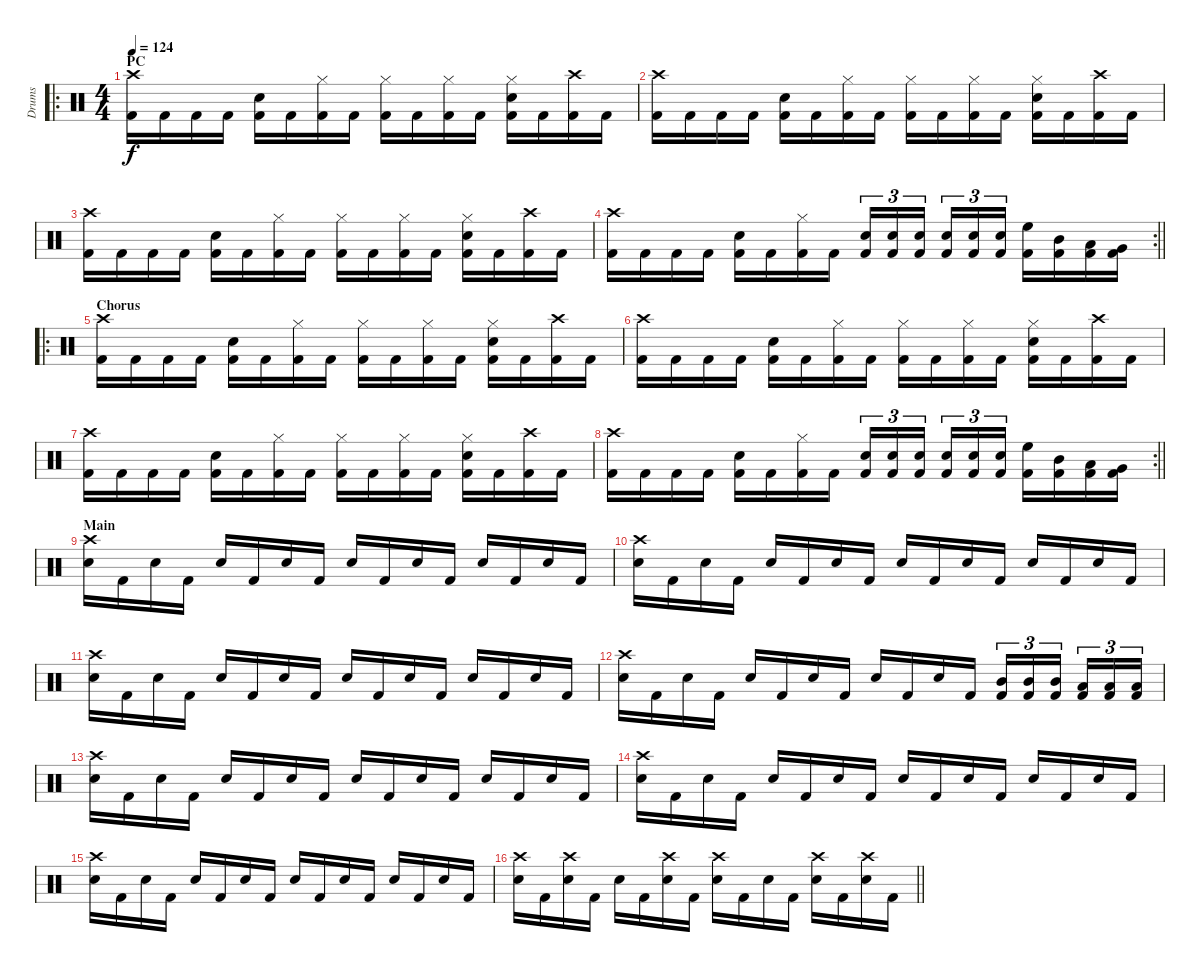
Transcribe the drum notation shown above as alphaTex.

\track ("Drums" "Drums") {instrument percussion}
\staff {score}
\articulation defaults
\ro
\ts (4 4)
\section ("" "PC")
\tempo 124
\clef neutral
\ks c
("Crash high (hit)" "Kick (hit) 2").16{dy f} "Kick (hit) 2".16 "Kick (hit) 2".16 "Kick (hit) 2".16 ("Electric Snare (hit)" "Kick (hit) 2").16 "Kick (hit) 2".16 ("Hi-Hat (closed)" "Kick (hit) 2").16 "Kick (hit) 2".16 ("Hi-Hat (closed)" "Kick (hit) 2").16 "Kick (hit) 2".16 ("Hi-Hat (closed)" "Kick (hit) 2").16 "Kick (hit) 2".16 ("Hi-Hat (closed)" "Electric Snare (hit)" "Kick (hit) 2").16 "Kick (hit) 2".16 ("Crash high (hit)" "Kick (hit) 2").16 "Kick (hit) 2".16 |
("Crash high (hit)" "Kick (hit) 2").16 "Kick (hit) 2".16 "Kick (hit) 2".16 "Kick (hit) 2".16 ("Electric Snare (hit)" "Kick (hit) 2").16 "Kick (hit) 2".16 ("Hi-Hat (closed)" "Kick (hit) 2").16 "Kick (hit) 2".16 ("Hi-Hat (closed)" "Kick (hit) 2").16 "Kick (hit) 2".16 ("Hi-Hat (closed)" "Kick (hit) 2").16 "Kick (hit) 2".16 ("Hi-Hat (closed)" "Electric Snare (hit)" "Kick (hit) 2").16 "Kick (hit) 2".16 ("Crash high (hit)" "Kick (hit) 2").16 "Kick (hit) 2".16 |
("Crash high (hit)" "Kick (hit) 2").16 "Kick (hit) 2".16 "Kick (hit) 2".16 "Kick (hit) 2".16 ("Electric Snare (hit)" "Kick (hit) 2").16 "Kick (hit) 2".16 ("Hi-Hat (closed)" "Kick (hit) 2").16 "Kick (hit) 2".16 ("Hi-Hat (closed)" "Kick (hit) 2").16 "Kick (hit) 2".16 ("Hi-Hat (closed)" "Kick (hit) 2").16 "Kick (hit) 2".16 ("Hi-Hat (closed)" "Electric Snare (hit)" "Kick (hit) 2").16 "Kick (hit) 2".16 ("Crash high (hit)" "Kick (hit) 2").16 "Kick (hit) 2".16 |
\rc 2
\barLineRight lightlight
("Crash high (hit)" "Kick (hit) 2").16 "Kick (hit) 2".16 "Kick (hit) 2".16 "Kick (hit) 2".16 ("Electric Snare (hit)" "Kick (hit) 2").16 "Kick (hit) 2".16 ("Hi-Hat (closed)" "Kick (hit) 2").16 "Kick (hit) 2".16 ("Electric Snare (hit)" "Kick (hit) 2").16{tu (3 2)} ("Electric Snare (hit)" "Kick (hit) 2").16{tu (3 2)} ("Electric Snare (hit)" "Kick (hit) 2").16{tu (3 2) beam splitsecondary} ("Electric Snare (hit)" "Kick (hit) 2").16{tu (3 2)} ("Electric Snare (hit)" "Kick (hit) 2").16{tu (3 2)} ("Electric Snare (hit)" "Kick (hit) 2").16{tu (3 2)} ("High Floor Tom (hit)" "Kick (hit) 2").16 ("Mid Tom (hit)" "Kick (hit) 2").16 ("Low Tom (hit)" "Kick (hit) 2").16 ("Very Low Tom (hit)" "Kick (hit) 2").16 |
\ro
\section ("" "Chorus")
("Crash high (hit)" "Kick (hit) 2").16 "Kick (hit) 2".16 "Kick (hit) 2".16 "Kick (hit) 2".16 ("Electric Snare (hit)" "Kick (hit) 2").16 "Kick (hit) 2".16 ("Hi-Hat (closed)" "Kick (hit) 2").16 "Kick (hit) 2".16 ("Hi-Hat (closed)" "Kick (hit) 2").16 "Kick (hit) 2".16 ("Hi-Hat (closed)" "Kick (hit) 2").16 "Kick (hit) 2".16 ("Hi-Hat (closed)" "Electric Snare (hit)" "Kick (hit) 2").16 "Kick (hit) 2".16 ("Crash high (hit)" "Kick (hit) 2").16 "Kick (hit) 2".16 |
("Crash high (hit)" "Kick (hit) 2").16 "Kick (hit) 2".16 "Kick (hit) 2".16 "Kick (hit) 2".16 ("Electric Snare (hit)" "Kick (hit) 2").16 "Kick (hit) 2".16 ("Hi-Hat (closed)" "Kick (hit) 2").16 "Kick (hit) 2".16 ("Hi-Hat (closed)" "Kick (hit) 2").16 "Kick (hit) 2".16 ("Hi-Hat (closed)" "Kick (hit) 2").16 "Kick (hit) 2".16 ("Hi-Hat (closed)" "Electric Snare (hit)" "Kick (hit) 2").16 "Kick (hit) 2".16 ("Crash high (hit)" "Kick (hit) 2").16 "Kick (hit) 2".16 |
("Crash high (hit)" "Kick (hit) 2").16 "Kick (hit) 2".16 "Kick (hit) 2".16 "Kick (hit) 2".16 ("Electric Snare (hit)" "Kick (hit) 2").16 "Kick (hit) 2".16 ("Hi-Hat (closed)" "Kick (hit) 2").16 "Kick (hit) 2".16 ("Hi-Hat (closed)" "Kick (hit) 2").16 "Kick (hit) 2".16 ("Hi-Hat (closed)" "Kick (hit) 2").16 "Kick (hit) 2".16 ("Hi-Hat (closed)" "Electric Snare (hit)" "Kick (hit) 2").16 "Kick (hit) 2".16 ("Crash high (hit)" "Kick (hit) 2").16 "Kick (hit) 2".16 |
\rc 2
\barLineRight lightlight
("Crash high (hit)" "Kick (hit) 2").16 "Kick (hit) 2".16 "Kick (hit) 2".16 "Kick (hit) 2".16 ("Electric Snare (hit)" "Kick (hit) 2").16 "Kick (hit) 2".16 ("Hi-Hat (closed)" "Kick (hit) 2").16 "Kick (hit) 2".16 ("Electric Snare (hit)" "Kick (hit) 2").16{tu (3 2)} ("Electric Snare (hit)" "Kick (hit) 2").16{tu (3 2)} ("Electric Snare (hit)" "Kick (hit) 2").16{tu (3 2) beam splitsecondary} ("Electric Snare (hit)" "Kick (hit) 2").16{tu (3 2)} ("Electric Snare (hit)" "Kick (hit) 2").16{tu (3 2)} ("Electric Snare (hit)" "Kick (hit) 2").16{tu (3 2)} ("High Floor Tom (hit)" "Kick (hit) 2").16 ("Mid Tom (hit)" "Kick (hit) 2").16 ("Low Tom (hit)" "Kick (hit) 2").16 ("Very Low Tom (hit)" "Kick (hit) 2").16 |
\section ("" "Main")
("Crash high (hit)" "Electric Snare (hit)").16 "Kick (hit) 2".16 "Electric Snare (hit)".16 "Kick (hit) 2".16 "Electric Snare (hit)".16 "Kick (hit) 2".16 "Electric Snare (hit)".16 "Kick (hit) 2".16 "Electric Snare (hit)".16 "Kick (hit) 2".16 "Electric Snare (hit)".16 "Kick (hit) 2".16 "Electric Snare (hit)".16 "Kick (hit) 2".16 "Electric Snare (hit)".16 "Kick (hit) 2".16 |
("Crash high (hit)" "Electric Snare (hit)").16 "Kick (hit) 2".16 "Electric Snare (hit)".16 "Kick (hit) 2".16 "Electric Snare (hit)".16 "Kick (hit) 2".16 "Electric Snare (hit)".16 "Kick (hit) 2".16 "Electric Snare (hit)".16 "Kick (hit) 2".16 "Electric Snare (hit)".16 "Kick (hit) 2".16 "Electric Snare (hit)".16 "Kick (hit) 2".16 "Electric Snare (hit)".16 "Kick (hit) 2".16 |
("Crash high (hit)" "Electric Snare (hit)").16 "Kick (hit) 2".16 "Electric Snare (hit)".16 "Kick (hit) 2".16 "Electric Snare (hit)".16 "Kick (hit) 2".16 "Electric Snare (hit)".16 "Kick (hit) 2".16 "Electric Snare (hit)".16 "Kick (hit) 2".16 "Electric Snare (hit)".16 "Kick (hit) 2".16 "Electric Snare (hit)".16 "Kick (hit) 2".16 "Electric Snare (hit)".16 "Kick (hit) 2".16 |
("Crash high (hit)" "Electric Snare (hit)").16 "Kick (hit) 2".16 "Electric Snare (hit)".16 "Kick (hit) 2".16 "Electric Snare (hit)".16 "Kick (hit) 2".16 "Electric Snare (hit)".16 "Kick (hit) 2".16 "Electric Snare (hit)".16 "Kick (hit) 2".16 "Electric Snare (hit)".16 "Kick (hit) 2".16 ("Mid Tom (hit)" "Kick (hit) 2").16{tu (3 2)} ("Mid Tom (hit)" "Kick (hit) 2").16{tu (3 2)} ("Mid Tom (hit)" "Kick (hit) 2").16{tu (3 2) beam splitsecondary} ("Low Tom (hit)" "Kick (hit) 2").16{tu (3 2)} ("Low Tom (hit)" "Kick (hit) 2").16{tu (3 2)} ("Low Tom (hit)" "Kick (hit) 2").16{tu (3 2)} |
("Crash high (hit)" "Electric Snare (hit)").16 "Kick (hit) 2".16 "Electric Snare (hit)".16 "Kick (hit) 2".16 "Electric Snare (hit)".16 "Kick (hit) 2".16 "Electric Snare (hit)".16 "Kick (hit) 2".16 "Electric Snare (hit)".16 "Kick (hit) 2".16 "Electric Snare (hit)".16 "Kick (hit) 2".16 "Electric Snare (hit)".16 "Kick (hit) 2".16 "Electric Snare (hit)".16 "Kick (hit) 2".16 |
("Crash high (hit)" "Electric Snare (hit)").16 "Kick (hit) 2".16 "Electric Snare (hit)".16 "Kick (hit) 2".16 "Electric Snare (hit)".16 "Kick (hit) 2".16 "Electric Snare (hit)".16 "Kick (hit) 2".16 "Electric Snare (hit)".16 "Kick (hit) 2".16 "Electric Snare (hit)".16 "Kick (hit) 2".16 "Electric Snare (hit)".16 "Kick (hit) 2".16 "Electric Snare (hit)".16 "Kick (hit) 2".16 |
("Crash high (hit)" "Electric Snare (hit)").16 "Kick (hit) 2".16 "Electric Snare (hit)".16 "Kick (hit) 2".16 "Electric Snare (hit)".16 "Kick (hit) 2".16 "Electric Snare (hit)".16 "Kick (hit) 2".16 "Electric Snare (hit)".16 "Kick (hit) 2".16 "Electric Snare (hit)".16 "Kick (hit) 2".16 "Electric Snare (hit)".16 "Kick (hit) 2".16 "Electric Snare (hit)".16 "Kick (hit) 2".16 |
\barLineRight lightlight
("Crash high (hit)" "Electric Snare (hit)").16 "Kick (hit) 2".16 ("Crash high (hit)" "Electric Snare (hit)").16 "Kick (hit) 2".16 "Electric Snare (hit)".16 "Kick (hit) 2".16 ("Crash high (hit)" "Electric Snare (hit)").16 "Kick (hit) 2".16 ("Crash high (hit)" "Electric Snare (hit)").16 "Kick (hit) 2".16 "Electric Snare (hit)".16 "Kick (hit) 2".16 ("Crash high (hit)" "Electric Snare (hit)").16 "Kick (hit) 2".16 ("Crash high (hit)" "Electric Snare (hit)").16 "Kick (hit) 2".16
